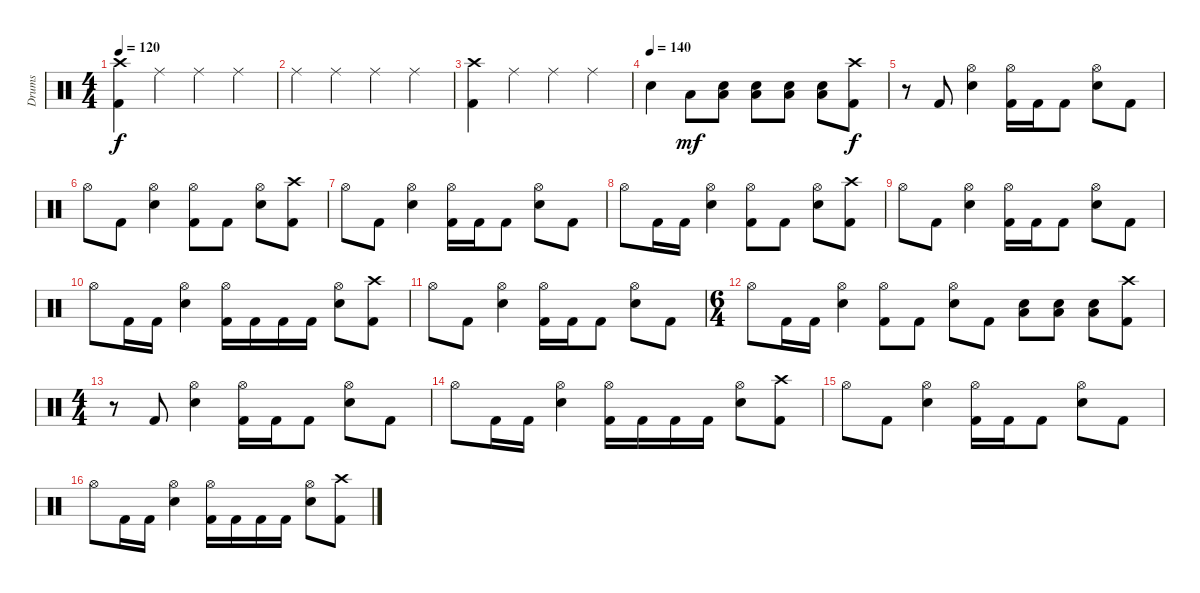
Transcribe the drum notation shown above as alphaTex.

\track ("Drums" "Drums") {instrument percussion}
\staff {score}
\articulation defaults
\ts (4 4)
\tempo 120
\clef neutral
\ks c
("Kick (hit) 2" "Crash high (hit)").4{dy f} "Ride (middle)".4 "Ride (middle)".4 "Ride (middle)".4 |
"Ride (middle)".4 "Ride (middle)".4 "Ride (middle)".4 "Ride (middle)".4 |
("Crash high (hit)" "Kick (hit) 2").4 "Ride (middle)".4 "Ride (middle)".4 "Ride (middle)".4 |
\tempo (140)
"Electric Snare (hit)".4 "Low Tom (hit)".8{dy mf} ("Electric Snare (hit)" "Low Tom (hit)").8 ("Electric Snare (hit)" "Low Tom (hit)").8 ("Electric Snare (hit)" "Low Tom (hit)").8 ("Electric Snare (hit)" "Low Tom (hit)").8 ("Crash high (hit)" "Kick (hit) 2").8{dy f} |
r.8 "Kick (hit) 2".8 ("Electric Snare (hit)" "Hi-Hat (open)").4 ("Kick (hit) 2" "Hi-Hat (open)").16 "Kick (hit) 2".16 "Kick (hit) 2".8 ("Hi-Hat (open)" "Electric Snare (hit)").8 "Kick (hit) 2".8 |
"Hi-Hat (open)".8 "Kick (hit) 2".8 ("Electric Snare (hit)" "Hi-Hat (open)").4 ("Hi-Hat (open)" "Kick (hit) 2").8 "Kick (hit) 2".8 ("Hi-Hat (open)" "Electric Snare (hit)").8 ("Kick (hit) 2" "Crash high (hit)").8 |
"Hi-Hat (open)".8 "Kick (hit) 2".8 ("Electric Snare (hit)" "Hi-Hat (open)").4 ("Kick (hit) 2" "Hi-Hat (open)").16 "Kick (hit) 2".16 "Kick (hit) 2".8 ("Hi-Hat (open)" "Electric Snare (hit)").8 "Kick (hit) 2".8 |
"Hi-Hat (open)".8 "Kick (hit) 2".16 "Kick (hit) 2".16 ("Electric Snare (hit)" "Hi-Hat (open)").4 ("Hi-Hat (open)" "Kick (hit) 2").8 "Kick (hit) 2".8 ("Hi-Hat (open)" "Electric Snare (hit)").8 ("Crash high (hit)" "Kick (hit) 2").8 |
"Hi-Hat (open)".8 "Kick (hit) 2".8 ("Electric Snare (hit)" "Hi-Hat (open)").4 ("Kick (hit) 2" "Hi-Hat (open)").16 "Kick (hit) 2".16 "Kick (hit) 2".8 ("Hi-Hat (open)" "Electric Snare (hit)").8 "Kick (hit) 2".8 |
"Hi-Hat (open)".8 "Kick (hit) 2".16 "Kick (hit) 2".16 ("Electric Snare (hit)" "Hi-Hat (open)").4 ("Hi-Hat (open)" "Kick (hit) 2").16 "Kick (hit) 2".16 "Kick (hit) 2".16 "Kick (hit) 2".16 ("Hi-Hat (open)" "Electric Snare (hit)").8 ("Kick (hit) 2" "Crash high (hit)").8 |
"Hi-Hat (open)".8 "Kick (hit) 2".8 ("Electric Snare (hit)" "Hi-Hat (open)").4 ("Kick (hit) 2" "Hi-Hat (open)").16 "Kick (hit) 2".16 "Kick (hit) 2".8 ("Hi-Hat (open)" "Electric Snare (hit)").8 "Kick (hit) 2".8 |
\ts (6 4)
"Hi-Hat (open)".8 "Kick (hit) 2".16 "Kick (hit) 2".16 ("Electric Snare (hit)" "Hi-Hat (open)").4 ("Hi-Hat (open)" "Kick (hit) 2").8 "Kick (hit) 2".8 ("Hi-Hat (open)" "Electric Snare (hit)").8 "Kick (hit) 2".8 ("Electric Snare (hit)" "Low Tom (hit)").8 ("Low Tom (hit)" "Electric Snare (hit)").8 ("Low Tom (hit)" "Electric Snare (hit)").8 ("Kick (hit) 2" "Crash high (hit)").8 |
\ts (4 4)
r.8 "Kick (hit) 2".8 ("Electric Snare (hit)" "Hi-Hat (open)").4 ("Kick (hit) 2" "Hi-Hat (open)").16 "Kick (hit) 2".16 "Kick (hit) 2".8 ("Hi-Hat (open)" "Electric Snare (hit)").8 "Kick (hit) 2".8 |
"Hi-Hat (open)".8 "Kick (hit) 2".16 "Kick (hit) 2".16 ("Electric Snare (hit)" "Hi-Hat (open)").4 ("Hi-Hat (open)" "Kick (hit) 2").16 "Kick (hit) 2".16 "Kick (hit) 2".16 "Kick (hit) 2".16 ("Hi-Hat (open)" "Electric Snare (hit)").8 ("Kick (hit) 2" "Crash high (hit)").8 |
"Hi-Hat (open)".8 "Kick (hit) 2".8 ("Electric Snare (hit)" "Hi-Hat (open)").4 ("Kick (hit) 2" "Hi-Hat (open)").16 "Kick (hit) 2".16 "Kick (hit) 2".8 ("Hi-Hat (open)" "Electric Snare (hit)").8 "Kick (hit) 2".8 |
"Hi-Hat (open)".8 "Kick (hit) 2".16 "Kick (hit) 2".16 ("Electric Snare (hit)" "Hi-Hat (open)").4 ("Hi-Hat (open)" "Kick (hit) 2").16 "Kick (hit) 2".16 "Kick (hit) 2".16 "Kick (hit) 2".16 ("Hi-Hat (open)" "Electric Snare (hit)").8 ("Kick (hit) 2" "Crash high (hit)").8
